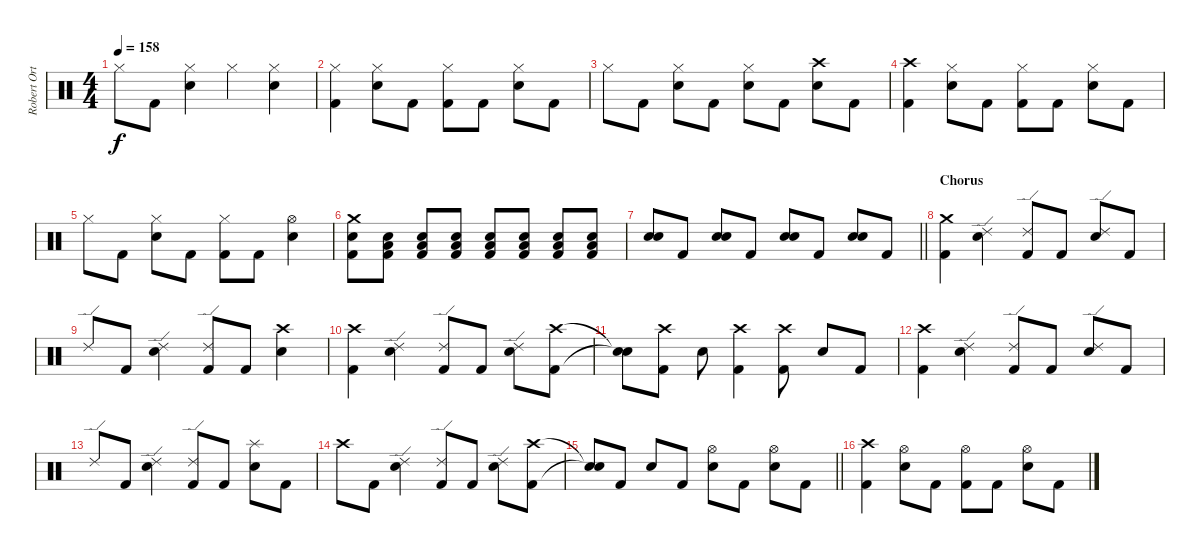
\track ("Robert Ortiz [Drums]" "Robert Ort") {instrument percussion}
\staff {score}
\articulation defaults
\ts (4 4)
\tempo 158
\clef neutral
\ks c "Hi-Hat (closed)".8{dy f} "Kick (hit) 2".8
("Hi-Hat (closed)" "Electric Snare (hit)").4 "Hi-Hat (closed)".4 ("Hi-Hat (closed)" "Electric Snare (hit)").4 |
("Hi-Hat (closed)" "Kick (hit) 2").4 ("Hi-Hat (closed)" "Electric Snare (hit)").8 "Kick (hit) 2".8 ("Hi-Hat (closed)" "Kick (hit) 2").8 "Kick (hit) 2".8 ("Hi-Hat (closed)" "Electric Snare (hit)").8 "Kick (hit) 2".8 |
"Hi-Hat (closed)".8 "Kick (hit) 2".8 ("Hi-Hat (closed)" "Electric Snare (hit)").8 "Kick (hit) 2".8 ("Hi-Hat (closed)" "Electric Snare (hit)").8 "Kick (hit) 2".8 ("Crash high (hit)" "Electric Snare (hit)").8 "Kick (hit) 2".8 |
("Crash high (hit)" "Kick (hit) 2").4 ("Hi-Hat (closed)" "Electric Snare (hit)").8 "Kick (hit) 2".8 ("Hi-Hat (closed)" "Kick (hit) 2").8 "Kick (hit) 2".8 ("Hi-Hat (closed)" "Electric Snare (hit)").8 "Kick (hit) 2".8 |
"Hi-Hat (closed)".8 "Kick (hit) 2".8 ("Hi-Hat (closed)" "Electric Snare (hit)").8 "Kick (hit) 2".8 ("Hi-Hat (closed)" "Kick (hit) 2").8 "Kick (hit) 2".8 ("Hi-Hat (open)" "Electric Snare (hit)").4 |
("Crash medium (hit)" "Electric Snare (hit)" "Kick (hit) 2").8 ("Electric Snare (hit)" "Low Floor Tom (hit)" "Kick (hit) 2").8 ("Electric Snare (hit)" "Low Floor Tom (hit)" "Kick (hit) 2").8 ("Electric Snare (hit)" "Low Floor Tom (hit)" "Kick (hit) 2").8 ("Electric Snare (hit)" "Low Floor Tom (hit)" "Kick (hit) 2").8 ("Electric Snare (hit)" "Low Floor Tom (hit)" "Kick (hit) 2").8 ("Electric Snare (hit)" "Low Floor Tom (hit)" "Kick (hit) 2").8 ("Electric Snare (hit)" "Low Floor Tom (hit)" "Kick (hit) 2").8 |
\barLineRight lightlight
("Electric Snare (hit)" "Electric Snare (hit)").8{bd 120} "Kick (hit) 2".8 ("Electric Snare (hit)" "Electric Snare (hit)").8{bd 120} "Kick (hit) 2".8 ("Electric Snare (hit)" "Electric Snare (hit)").8{bd 120} "Kick (hit) 2".8 ("Electric Snare (hit)" "Electric Snare (hit)").8{bd 120} "Kick (hit) 2".8 |
\section ("" "Chorus")
("Crash medium (hit)" "Kick (hit) 2").4 ("Ride (edge) 2" "Electric Snare (hit)").4 ("Ride (edge) 2" "Kick (hit) 2").8 "Kick (hit) 2".8 ("Ride (edge) 2" "Electric Snare (hit)").8 "Kick (hit) 2".8 |
"Ride (edge) 2".8 "Kick (hit) 2".8 ("Ride (edge) 2" "Electric Snare (hit)").4 ("Ride (edge) 2" "Kick (hit) 2").8 "Kick (hit) 2".8 ("Crash high (hit)" "Electric Snare (hit)").4 |
("Crash high (hit)" "Kick (hit) 2").4 ("Ride (edge) 2" "Electric Snare (hit)").4 ("Ride (edge) 2" "Kick (hit) 2").8 "Kick (hit) 2".8 ("Ride (edge) 2" "Electric Snare (hit)").8 ("Crash high (hit)" "Kick (hit) 2").8 |
("Snare (hit)"{t} "Snare (hit)"{t}).8 ("Crash high (hit)" "Kick (hit) 2").8 "Electric Snare (hit)".8 ("Crash high (hit)" "Kick (hit) 2").4 ("Crash high (hit)" "Kick (hit) 2").8 "Electric Snare (hit)".8 "Kick (hit) 2".8 |
("Crash high (hit)" "Kick (hit) 2").4 ("Ride (edge) 2" "Electric Snare (hit)").4 ("Ride (edge) 2" "Kick (hit) 2").8 "Kick (hit) 2".8 ("Ride (edge) 2" "Electric Snare (hit)").8 "Kick (hit) 2".8 |
"Ride (edge) 2".8 "Kick (hit) 2".8 ("Ride (edge) 2" "Electric Snare (hit)").4 ("Ride (edge) 2" "Kick (hit) 2").8 "Kick (hit) 2".8 ("Splash (hit)" "Electric Snare (hit)").8 "Kick (hit) 2".8 |
"Crash high (hit)".8 "Kick (hit) 2".8 ("Ride (edge) 2" "Electric Snare (hit)").4 ("Ride (edge) 2" "Kick (hit) 2").8 "Kick (hit) 2".8 ("Ride (edge) 2" "Electric Snare (hit)").8 ("Crash high (hit)" "Kick (hit) 2").8 |
\barLineRight lightlight
("Snare (hit)"{t} "Snare (hit)"{t}).8 "Kick (hit) 2".8 "Electric Snare (hit)".8 "Kick (hit) 2".8 ("Hi-Hat (open)" "Electric Snare (hit)").8 "Kick (hit) 2".8 ("Hi-Hat (open)" "Electric Snare (hit)").8 "Kick (hit) 2".8 |
("Crash high (hit)" "Kick (hit) 2").4 ("Hi-Hat (open)" "Electric Snare (hit)").8 "Kick (hit) 2".8 ("Hi-Hat (open)" "Kick (hit) 2").8 "Kick (hit) 2".8 ("Hi-Hat (open)" "Electric Snare (hit)").8 "Kick (hit) 2".8
